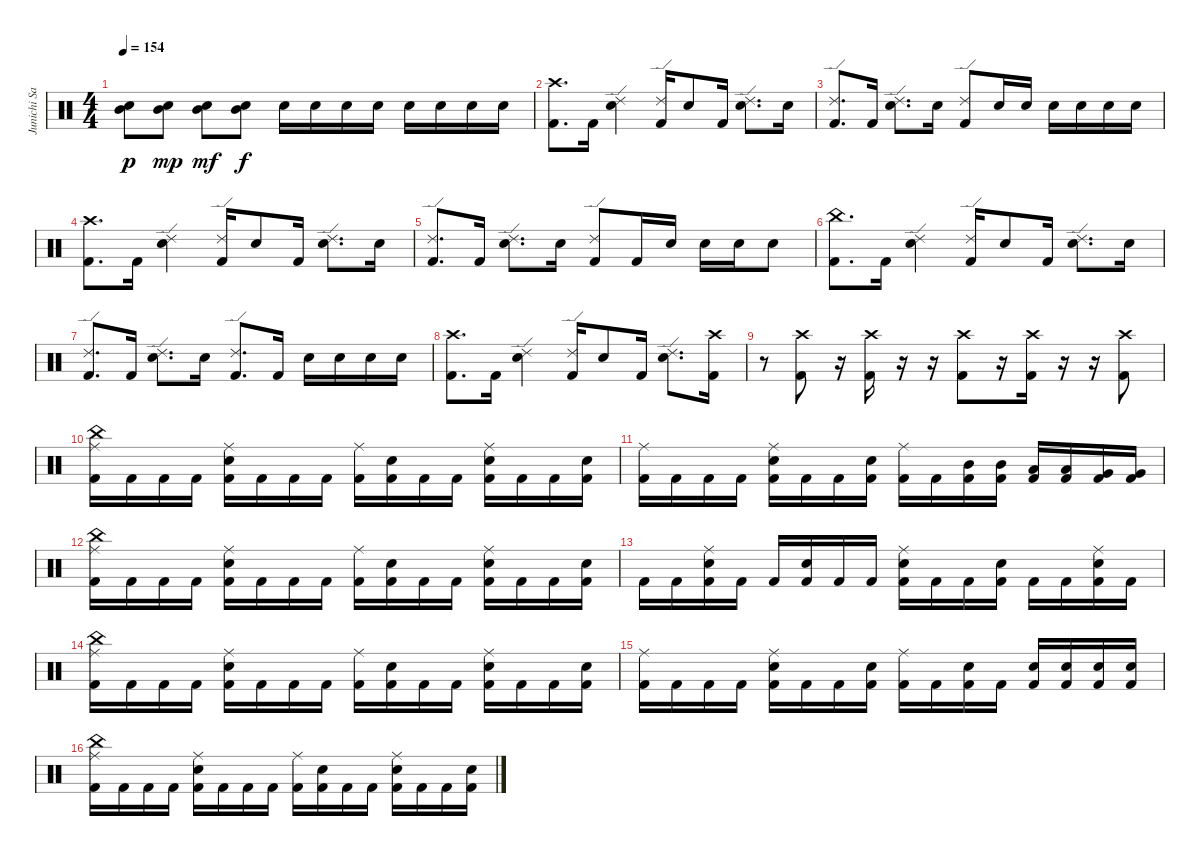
\track ("Junichi Sato" "Junichi Sa") {instrument percussion}
\staff {score}
\articulation defaults
\ts (4 4)
\tempo 154
\clef neutral
\ks c
("Electric Snare (hit)" "Mid Tom (hit)").8{dy p} ("Electric Snare (hit)" "Mid Tom (hit)").8{dy mp} ("Electric Snare (hit)" "Mid Tom (hit)").8{dy mf} ("Electric Snare (hit)" "Mid Tom (hit)").8{dy f} "Electric Snare (hit)".16 "Electric Snare (hit)".16 "Electric Snare (hit)".16 "Electric Snare (hit)".16 "Electric Snare (hit)".16 "Electric Snare (hit)".16 "Electric Snare (hit)".16 "Electric Snare (hit)".16 |
("Kick (hit) 2" "Crash high (hit)").8{d} "Kick (hit) 2".16 ("Electric Snare (hit)" "Ride (edge) 2").4 ("Kick (hit) 2" "Ride (edge) 2").16 "Electric Snare (hit)".8 "Kick (hit) 2".16 ("Electric Snare (hit)" "Ride (edge) 2").8{d} "Electric Snare (hit)".16 |
("Kick (hit) 2" "Ride (edge) 2").8{d} "Kick (hit) 2".16 ("Electric Snare (hit)" "Ride (edge) 2").8{d} "Electric Snare (hit)".16 ("Kick (hit) 2" "Ride (edge) 2").8 "Electric Snare (hit)".16 "Electric Snare (hit)".16 "Electric Snare (hit)".16 "Electric Snare (hit)".16 "Electric Snare (hit)".16 "Electric Snare (hit)".16 |
("Kick (hit) 2" "Crash high (hit)").8{d} "Kick (hit) 2".16 ("Electric Snare (hit)" "Ride (edge) 2").4 ("Kick (hit) 2" "Ride (edge) 2").16 "Electric Snare (hit)".8 "Kick (hit) 2".16 ("Electric Snare (hit)" "Ride (edge) 2").8{d} "Electric Snare (hit)".16 |
("Kick (hit) 2" "Ride (edge) 2").8{d} "Kick (hit) 2".16 ("Electric Snare (hit)" "Ride (edge) 2").8{d} "Electric Snare (hit)".16 ("Kick (hit) 2" "Ride (edge) 2").8 "Kick (hit) 2".16 "Electric Snare (hit)".16 "Electric Snare (hit)".16 "Electric Snare (hit)".16 "Electric Snare (hit)".8 |
("Kick (hit) 2" "China (hit)").8{d} "Kick (hit) 2".16 ("Electric Snare (hit)" "Ride (edge) 2").4 ("Kick (hit) 2" "Ride (edge) 2").16 "Electric Snare (hit)".8 "Kick (hit) 2".16 ("Electric Snare (hit)" "Ride (edge) 2").8{d} "Electric Snare (hit)".16 |
("Kick (hit) 2" "Ride (edge) 2").8{d} "Kick (hit) 2".16 ("Electric Snare (hit)" "Ride (edge) 2").8{d} "Electric Snare (hit)".16 ("Kick (hit) 2" "Ride (edge) 2").8{d} "Kick (hit) 2".16 "Electric Snare (hit)".16 "Electric Snare (hit)".16 "Electric Snare (hit)".16 "Electric Snare (hit)".16 |
("Kick (hit) 2" "Crash high (hit)").8{d} "Kick (hit) 2".16 ("Electric Snare (hit)" "Ride (edge) 2").4 ("Kick (hit) 2" "Ride (edge) 2").16 "Electric Snare (hit)".8 "Kick (hit) 2".16 ("Electric Snare (hit)" "Ride (edge) 2").8{d} ("Crash high (hit)" "Kick (hit) 2").16 |
r.8 ("Crash high (hit)" "Kick (hit) 2").8 r.16 ("Crash high (hit)" "Kick (hit) 2").16 r.16 r.16 ("Crash high (hit)" "Kick (hit) 2").8 r.16 ("Crash high (hit)" "Kick (hit) 2").16 r.16 r.16 ("Crash high (hit)" "Kick (hit) 2").8 |
("Kick (hit) 2" "China (hit)" "Ride (middle)").16 "Kick (hit) 2".16 "Kick (hit) 2".16 "Kick (hit) 2".16 ("Kick (hit) 2" "Electric Snare (hit)" "Ride (middle)").16 "Kick (hit) 2".16 "Kick (hit) 2".16 "Kick (hit) 2".16 ("Kick (hit) 2" "Ride (middle)").16 ("Kick (hit) 2" "Electric Snare (hit)").16 "Kick (hit) 2".16 "Kick (hit) 2".16 ("Kick (hit) 2" "Electric Snare (hit)" "Ride (middle)").16 "Kick (hit) 2".16 "Kick (hit) 2".16 ("Kick (hit) 2" "Electric Snare (hit)").16 |
("Kick (hit) 2" "Ride (middle)").16 "Kick (hit) 2".16 "Kick (hit) 2".16 "Kick (hit) 2".16 ("Kick (hit) 2" "Electric Snare (hit)" "Ride (middle)").16 "Kick (hit) 2".16 "Kick (hit) 2".16 ("Kick (hit) 2" "Electric Snare (hit)").16 ("Kick (hit) 2" "Ride (middle)").16 "Kick (hit) 2".16 ("Kick (hit) 2" "Mid Tom (hit)").16 ("Kick (hit) 2" "Mid Tom (hit)").16 ("Kick (hit) 2" "Low Tom (hit)").16 ("Kick (hit) 2" "Low Tom (hit)").16 ("Kick (hit) 2" "Very Low Tom (hit)").16 ("Kick (hit) 2" "Very Low Tom (hit)").16 |
("Kick (hit) 2" "China (hit)" "Ride (middle)").16 "Kick (hit) 2".16 "Kick (hit) 2".16 "Kick (hit) 2".16 ("Kick (hit) 2" "Electric Snare (hit)" "Ride (middle)").16 "Kick (hit) 2".16 "Kick (hit) 2".16 "Kick (hit) 2".16 ("Kick (hit) 2" "Ride (middle)").16 ("Kick (hit) 2" "Electric Snare (hit)").16 "Kick (hit) 2".16 "Kick (hit) 2".16 ("Kick (hit) 2" "Electric Snare (hit)" "Ride (middle)").16 "Kick (hit) 2".16 "Kick (hit) 2".16 ("Kick (hit) 2" "Electric Snare (hit)").16 |
"Kick (hit) 2".16 "Kick (hit) 2".16 ("Kick (hit) 2" "Electric Snare (hit)" "Ride (middle)").16 "Kick (hit) 2".16 "Kick (hit) 2".16 ("Kick (hit) 2" "Electric Snare (hit)").16 "Kick (hit) 2".16 "Kick (hit) 2".16 ("Kick (hit) 2" "Electric Snare (hit)" "Ride (middle)").16 "Kick (hit) 2".16 "Kick (hit) 2".16 ("Kick (hit) 2" "Electric Snare (hit)").16 "Kick (hit) 2".16 "Kick (hit) 2".16 ("Kick (hit) 2" "Electric Snare (hit)" "Ride (middle)").16 "Kick (hit) 2".16 |
("Kick (hit) 2" "China (hit)" "Ride (middle)").16 "Kick (hit) 2".16 "Kick (hit) 2".16 "Kick (hit) 2".16 ("Kick (hit) 2" "Electric Snare (hit)" "Ride (middle)").16 "Kick (hit) 2".16 "Kick (hit) 2".16 "Kick (hit) 2".16 ("Kick (hit) 2" "Ride (middle)").16 ("Kick (hit) 2" "Electric Snare (hit)").16 "Kick (hit) 2".16 "Kick (hit) 2".16 ("Kick (hit) 2" "Electric Snare (hit)" "Ride (middle)").16 "Kick (hit) 2".16 "Kick (hit) 2".16 ("Kick (hit) 2" "Electric Snare (hit)").16 |
("Kick (hit) 2" "Ride (middle)").16 "Kick (hit) 2".16 "Kick (hit) 2".16 "Kick (hit) 2".16 ("Kick (hit) 2" "Electric Snare (hit)" "Ride (middle)").16 "Kick (hit) 2".16 "Kick (hit) 2".16 ("Kick (hit) 2" "Electric Snare (hit)").16 ("Kick (hit) 2" "Ride (middle)").16 "Kick (hit) 2".16 ("Kick (hit) 2" "Electric Snare (hit)").16 "Kick (hit) 2".16 ("Kick (hit) 2" "Electric Snare (hit)").16 ("Kick (hit) 2" "Electric Snare (hit)").16 ("Kick (hit) 2" "Electric Snare (hit)").16 ("Kick (hit) 2" "Electric Snare (hit)").16 |
("Kick (hit) 2" "China (hit)" "Ride (middle)").16 "Kick (hit) 2".16 "Kick (hit) 2".16 "Kick (hit) 2".16 ("Kick (hit) 2" "Electric Snare (hit)" "Ride (middle)").16 "Kick (hit) 2".16 "Kick (hit) 2".16 "Kick (hit) 2".16 ("Kick (hit) 2" "Ride (middle)").16 ("Kick (hit) 2" "Electric Snare (hit)").16 "Kick (hit) 2".16 "Kick (hit) 2".16 ("Kick (hit) 2" "Electric Snare (hit)" "Ride (middle)").16 "Kick (hit) 2".16 "Kick (hit) 2".16 ("Kick (hit) 2" "Electric Snare (hit)").16
